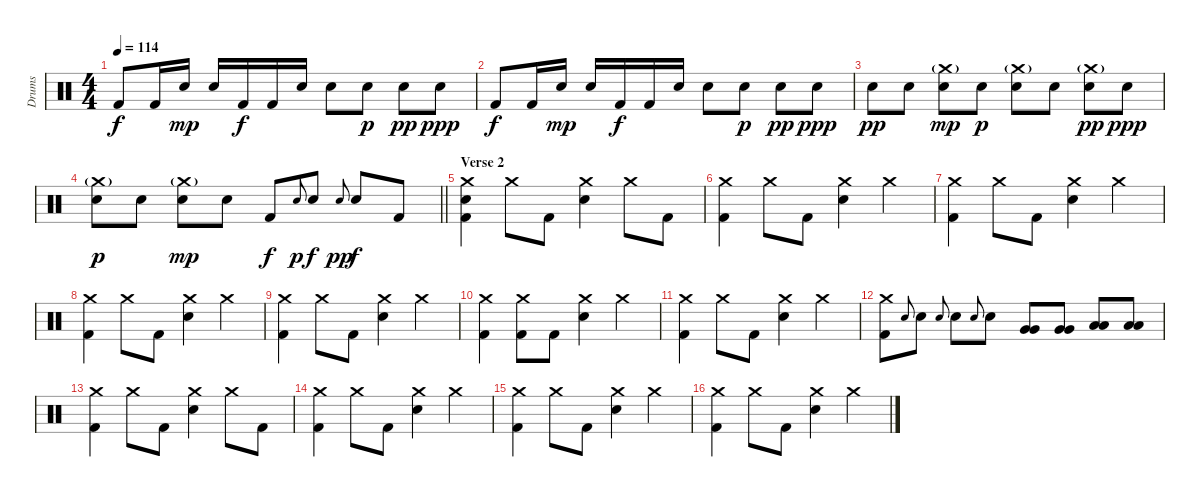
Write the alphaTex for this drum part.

\track ("Drums" "Drums") {instrument percussion}
\staff {score}
\articulation defaults
\ts (4 4)
\tempo 114
\clef neutral
\ks c "Kick (hit) 2".8{dy f} "Kick (hit) 2".16 "Electric Snare (hit)".16{dy mp} "Electric Snare (hit)".16 "Kick (hit) 2".16{dy f} "Kick (hit) 2".16 "Electric Snare (hit)".16 "Electric Snare (hit)".8 "Electric Snare (hit)".8{dy p} "Electric Snare (hit)".8{dy pp} "Electric Snare (hit)".8{dy ppp}
|
"Kick (hit) 2".8{dy f} "Kick (hit) 2".16 "Electric Snare (hit)".16{dy mp} "Electric Snare (hit)".16 "Kick (hit) 2".16{dy f} "Kick (hit) 2".16 "Electric Snare (hit)".16 "Electric Snare (hit)".8 "Electric Snare (hit)".8{dy p} "Electric Snare (hit)".8{dy pp} "Electric Snare (hit)".8{dy ppp} |
"Electric Snare (hit)".8{dy pp} "Electric Snare (hit)".8 ("Crash medium (hit)"{g} "Electric Snare (hit)").8{dy mp} "Electric Snare (hit)".8{dy p} ("Crash medium (hit)"{g} "Electric Snare (hit)").8 "Electric Snare (hit)".8 ("Crash medium (hit)"{g} "Electric Snare (hit)").8{dy pp} "Electric Snare (hit)".8{dy ppp} |
\barLineRight lightlight
("Crash medium (hit)"{g} "Electric Snare (hit)").8{dy p} "Electric Snare (hit)".8 ("Crash medium (hit)"{g} "Electric Snare (hit)").8{dy mp} "Electric Snare (hit)".8 "Kick (hit) 2".8{dy f} "Electric Snare (hit)".8{gr onbeat dy p} "Electric Snare (hit)".8{dy f} "Electric Snare (hit)".8{gr onbeat dy pp} "Electric Snare (hit)".8{dy f} "Kick (hit) 2".8 |
\section ("" "Verse 2")
("Crash medium (hit)" "Electric Snare (hit)" "Kick (hit) 2").4 "Crash medium (hit)".8 "Kick (hit) 2".8 ("Crash medium (hit)" "Electric Snare (hit)").4 "Crash medium (hit)".8 "Kick (hit) 2".8 |
("Crash medium (hit)" "Kick (hit) 2").4 "Crash medium (hit)".8 "Kick (hit) 2".8 ("Crash medium (hit)" "Electric Snare (hit)").4 "Crash medium (hit)".4 |
("Crash medium (hit)" "Kick (hit) 2").4 "Crash medium (hit)".8 "Kick (hit) 2".8 ("Crash medium (hit)" "Electric Snare (hit)").4 "Crash medium (hit)".4 |
("Crash medium (hit)" "Kick (hit) 2").4 "Crash medium (hit)".8 "Kick (hit) 2".8 ("Crash medium (hit)" "Electric Snare (hit)").4 "Crash medium (hit)".4 |
("Crash medium (hit)" "Kick (hit) 2").4 "Crash medium (hit)".8 "Kick (hit) 2".8 ("Crash medium (hit)" "Electric Snare (hit)").4 "Crash medium (hit)".4 |
("Crash medium (hit)" "Kick (hit) 2").4 ("Crash medium (hit)" "Kick (hit) 2").8 "Kick (hit) 2".8 ("Crash medium (hit)" "Electric Snare (hit)").4 "Crash medium (hit)".4 |
("Crash medium (hit)" "Kick (hit) 2").4 "Crash medium (hit)".8 "Kick (hit) 2".8 ("Crash medium (hit)" "Electric Snare (hit)").4 "Crash medium (hit)".4 |
("Crash medium (hit)" "Kick (hit) 2").8 "Electric Snare (hit)".8{gr onbeat} "Electric Snare (hit)".8 "Electric Snare (hit)".8{gr onbeat} "Electric Snare (hit)".8 "Electric Snare (hit)".8{gr onbeat} "Electric Snare (hit)".8 ("Very Low Tom (hit)" "Very Low Tom (hit)").8 ("Very Low Tom (hit)" "Very Low Tom (hit)").8 ("Low Floor Tom (hit)" "Low Floor Tom (hit)").8 ("Low Floor Tom (hit)" "Low Floor Tom (hit)").8 |
("Crash medium (hit)" "Kick (hit) 2").4 "Crash medium (hit)".8 "Kick (hit) 2".8 ("Crash medium (hit)" "Electric Snare (hit)").4 "Crash medium (hit)".8 "Kick (hit) 2".8 |
("Crash medium (hit)" "Kick (hit) 2").4 "Crash medium (hit)".8 "Kick (hit) 2".8 ("Crash medium (hit)" "Electric Snare (hit)").4 "Crash medium (hit)".4 |
("Crash medium (hit)" "Kick (hit) 2").4 "Crash medium (hit)".8 "Kick (hit) 2".8 ("Crash medium (hit)" "Electric Snare (hit)").4 "Crash medium (hit)".4 |
("Crash medium (hit)" "Kick (hit) 2").4 "Crash medium (hit)".8 "Kick (hit) 2".8 ("Crash medium (hit)" "Electric Snare (hit)").4 "Crash medium (hit)".4
